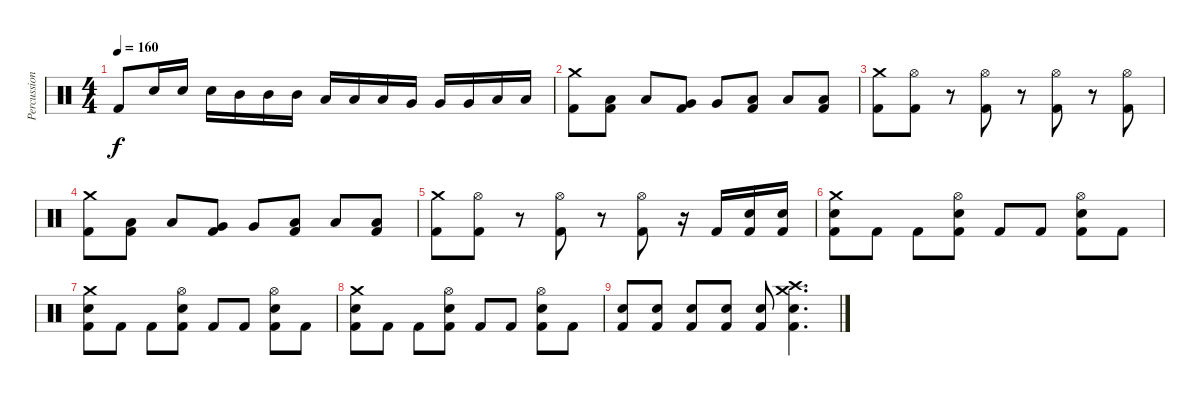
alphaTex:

\track ("Percussioni" "Percussion") {instrument percussion}
\staff {score}
\articulation defaults
\ts (4 4)
\tempo 160
\clef neutral
\ks c "Kick (hit) 2".8{dy f} "Snare (hit) 2".16 "Snare (hit) 2".16 "Snare (hit) 2".16 "Mid Tom (hit)".16 "Mid Tom (hit)".16 "Mid Tom (hit)".16 "Low Tom (hit)".16 "Low Tom (hit)".16 "Low Tom (hit)".16 "Very Low Tom (hit)".16 "Very Low Tom (hit)".16 "Very Low Tom (hit)".16 "Low Floor Tom (hit)".16 "Low Floor Tom (hit)".16
|
("Crash medium (hit)" "Kick (hit) 2").8 ("Low Tom (hit)" "Kick (hit) 2").8 "Low Tom (hit)".8 ("Very Low Tom (hit)" "Kick (hit) 2").8 "Very Low Tom (hit)".8 ("Low Floor Tom (hit)" "Kick (hit) 2").8 "Low Floor Tom (hit)".8 ("Low Floor Tom (hit)" "Kick (hit) 2").8 |
("Crash medium (hit)" "Kick (hit) 2").8 ("Hi-Hat (open)" "Kick (hit) 2").8 r.8 ("Hi-Hat (open)" "Kick (hit) 2").8 r.8 ("Hi-Hat (open)" "Kick (hit) 2").8 r.8 ("Hi-Hat (open)" "Kick (hit) 2").8 |
("Crash medium (hit)" "Kick (hit) 2").8 ("Low Tom (hit)" "Kick (hit) 2").8 "Low Tom (hit)".8 ("Very Low Tom (hit)" "Kick (hit) 2").8 "Very Low Tom (hit)".8 ("Low Floor Tom (hit)" "Kick (hit) 2").8 "Low Floor Tom (hit)".8 ("Low Floor Tom (hit)" "Kick (hit) 2").8 |
("Crash medium (hit)" "Kick (hit) 2").8 ("Hi-Hat (open)" "Kick (hit) 2").8 r.8 ("Hi-Hat (open)" "Kick (hit) 2").8 r.8 ("Hi-Hat (open)" "Kick (hit) 2").8 r.16 "Kick (hit) 2".16 ("Snare (hit) 2" "Kick (hit) 2").16 ("Snare (hit) 2" "Kick (hit) 2").16 |
("Crash medium (hit)" "Snare (hit) 2" "Kick (hit) 2").8 "Kick (hit) 2".8 "Kick (hit) 2".8 ("Hi-Hat (open)" "Snare (hit) 2" "Kick (hit) 2").8 "Kick (hit) 2".8 "Kick (hit) 2".8 ("Hi-Hat (open)" "Snare (hit) 2" "Kick (hit) 2").8 "Kick (hit) 2".8 |
("Crash medium (hit)" "Snare (hit) 2" "Kick (hit) 2").8 "Kick (hit) 2".8 "Kick (hit) 2".8 ("Hi-Hat (open)" "Snare (hit) 2" "Kick (hit) 2").8 "Kick (hit) 2".8 "Kick (hit) 2".8 ("Hi-Hat (open)" "Snare (hit) 2" "Kick (hit) 2").8 "Kick (hit) 2".8 |
("Crash medium (hit)" "Snare (hit) 2" "Kick (hit) 2").8 "Kick (hit) 2".8 "Kick (hit) 2".8 ("Hi-Hat (open)" "Snare (hit) 2" "Kick (hit) 2").8 "Kick (hit) 2".8 "Kick (hit) 2".8 ("Hi-Hat (open)" "Snare (hit) 2" "Kick (hit) 2").8 "Kick (hit) 2".8 |
("Snare (hit) 2" "Kick (hit) 2").8 ("Snare (hit) 2" "Kick (hit) 2").8 ("Snare (hit) 2" "Kick (hit) 2").8 ("Snare (hit) 2" "Kick (hit) 2").8 ("Snare (hit) 2" "Kick (hit) 2").8 ("Crash medium (hit)" "Crash high (hit)" "Snare (hit) 2" "Kick (hit) 2").4{d}
